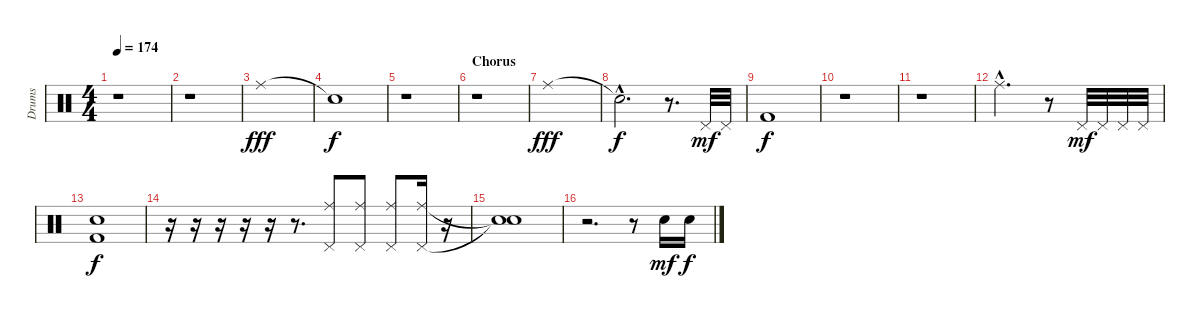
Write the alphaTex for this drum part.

\track ("Drums" "Drums") {instrument percussion}
\staff {score}
\articulation defaults
\ts (4 4)
\tempo 174
\clef neutral
\ks c
r.1{dy f} |
r.1 |
"Ride (middle)".1{dy fff} |
"Snare (hit)"{t}.1{dy f} |
r.1 |
\section ("" "Chorus")
r.1 |
"Ride (middle)".1{dy fff} |
"Snare (hit)"{hac t}.2{d dy f} r.8{d} "Pedal Hi-Hat (hit)".32{dy mf} "Pedal Hi-Hat (hit)".32 |
"Kick (hit) 2".1{dy f} |
r.1 |
r.1 |
"Ride (middle)"{hac}.2{d} r.8 "Pedal Hi-Hat (hit)".32{dy mf} "Pedal Hi-Hat (hit)".32 "Pedal Hi-Hat (hit)".32 "Pedal Hi-Hat (hit)".32 |
("Kick (hit) 2" "Snare (hit)").1{dy f} |
r.16 r.16 r.16 r.16 r.16 r.8{d} ("Ride (middle)" "Pedal Hi-Hat (hit)").8 ("Ride (middle)" "Pedal Hi-Hat (hit)").8 ("Ride (middle)" "Pedal Hi-Hat (hit)").8 ("Ride (middle)" "Pedal Hi-Hat (hit)").16 r.16 |
("Snare (hit)"{t} "Snare (hit)"{t}).1 |
r.2{d} r.8 "Snare (hit) 2".16{dy mf} "Snare (hit) 2".16{dy f}
